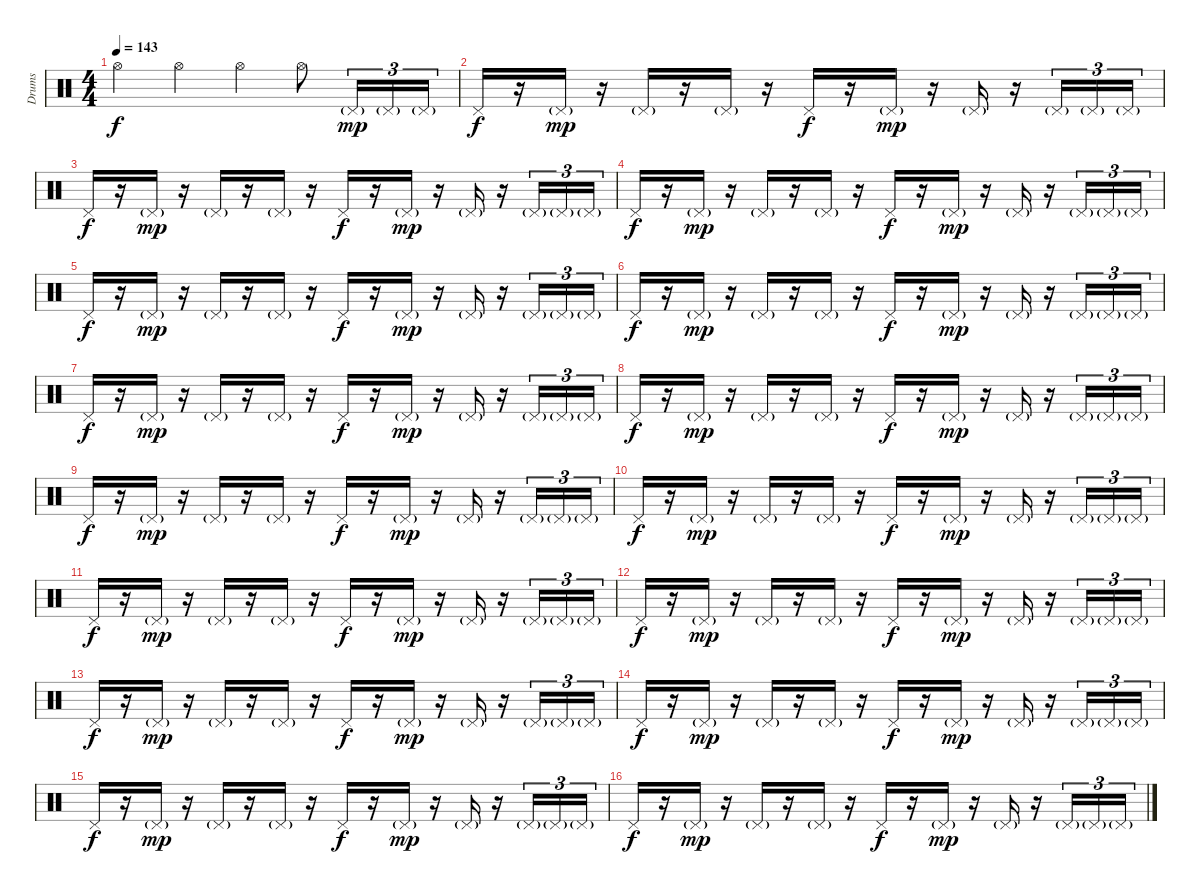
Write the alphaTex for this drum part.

\track ("Drums" "Drums") {instrument percussion}
\staff {score}
\articulation defaults
\ts (4 4)
\tempo 143
\clef neutral
\ks c "Hi-Hat (open)".4{dy f} "Hi-Hat (open)".4 "Hi-Hat (open)".4 "Hi-Hat (open)".8 "Pedal Hi-Hat (hit)"{g}.16{tu (3 2) dy mp} "Pedal Hi-Hat (hit)"{g}.16{tu (3 2)} "Pedal Hi-Hat (hit)"{g}.16{tu (3 2)}
|
"Pedal Hi-Hat (hit)".16{dy f} r.16 "Pedal Hi-Hat (hit)"{g}.16{dy mp} r.16 "Pedal Hi-Hat (hit)"{g}.16 r.16 "Pedal Hi-Hat (hit)"{g}.16 r.16 "Pedal Hi-Hat (hit)".16{dy f} r.16 "Pedal Hi-Hat (hit)"{g}.16{dy mp} r.16 "Pedal Hi-Hat (hit)"{g}.16 r.16 "Pedal Hi-Hat (hit)"{g}.16{tu (3 2)} "Pedal Hi-Hat (hit)"{g}.16{tu (3 2)} "Pedal Hi-Hat (hit)"{g}.16{tu (3 2)} |
"Pedal Hi-Hat (hit)".16{dy f} r.16 "Pedal Hi-Hat (hit)"{g}.16{dy mp} r.16 "Pedal Hi-Hat (hit)"{g}.16 r.16 "Pedal Hi-Hat (hit)"{g}.16 r.16 "Pedal Hi-Hat (hit)".16{dy f} r.16 "Pedal Hi-Hat (hit)"{g}.16{dy mp} r.16 "Pedal Hi-Hat (hit)"{g}.16 r.16 "Pedal Hi-Hat (hit)"{g}.16{tu (3 2)} "Pedal Hi-Hat (hit)"{g}.16{tu (3 2)} "Pedal Hi-Hat (hit)"{g}.16{tu (3 2)} |
"Pedal Hi-Hat (hit)".16{dy f} r.16 "Pedal Hi-Hat (hit)"{g}.16{dy mp} r.16 "Pedal Hi-Hat (hit)"{g}.16 r.16 "Pedal Hi-Hat (hit)"{g}.16 r.16 "Pedal Hi-Hat (hit)".16{dy f} r.16 "Pedal Hi-Hat (hit)"{g}.16{dy mp} r.16 "Pedal Hi-Hat (hit)"{g}.16 r.16 "Pedal Hi-Hat (hit)"{g}.16{tu (3 2)} "Pedal Hi-Hat (hit)"{g}.16{tu (3 2)} "Pedal Hi-Hat (hit)"{g}.16{tu (3 2)} |
"Pedal Hi-Hat (hit)".16{dy f} r.16 "Pedal Hi-Hat (hit)"{g}.16{dy mp} r.16 "Pedal Hi-Hat (hit)"{g}.16 r.16 "Pedal Hi-Hat (hit)"{g}.16 r.16 "Pedal Hi-Hat (hit)".16{dy f} r.16 "Pedal Hi-Hat (hit)"{g}.16{dy mp} r.16 "Pedal Hi-Hat (hit)"{g}.16 r.16 "Pedal Hi-Hat (hit)"{g}.16{tu (3 2)} "Pedal Hi-Hat (hit)"{g}.16{tu (3 2)} "Pedal Hi-Hat (hit)"{g}.16{tu (3 2)} |
"Pedal Hi-Hat (hit)".16{dy f} r.16 "Pedal Hi-Hat (hit)"{g}.16{dy mp} r.16 "Pedal Hi-Hat (hit)"{g}.16 r.16 "Pedal Hi-Hat (hit)"{g}.16 r.16 "Pedal Hi-Hat (hit)".16{dy f} r.16 "Pedal Hi-Hat (hit)"{g}.16{dy mp} r.16 "Pedal Hi-Hat (hit)"{g}.16 r.16 "Pedal Hi-Hat (hit)"{g}.16{tu (3 2)} "Pedal Hi-Hat (hit)"{g}.16{tu (3 2)} "Pedal Hi-Hat (hit)"{g}.16{tu (3 2)} |
"Pedal Hi-Hat (hit)".16{dy f} r.16 "Pedal Hi-Hat (hit)"{g}.16{dy mp} r.16 "Pedal Hi-Hat (hit)"{g}.16 r.16 "Pedal Hi-Hat (hit)"{g}.16 r.16 "Pedal Hi-Hat (hit)".16{dy f} r.16 "Pedal Hi-Hat (hit)"{g}.16{dy mp} r.16 "Pedal Hi-Hat (hit)"{g}.16 r.16 "Pedal Hi-Hat (hit)"{g}.16{tu (3 2)} "Pedal Hi-Hat (hit)"{g}.16{tu (3 2)} "Pedal Hi-Hat (hit)"{g}.16{tu (3 2)} |
"Pedal Hi-Hat (hit)".16{dy f} r.16 "Pedal Hi-Hat (hit)"{g}.16{dy mp} r.16 "Pedal Hi-Hat (hit)"{g}.16 r.16 "Pedal Hi-Hat (hit)"{g}.16 r.16 "Pedal Hi-Hat (hit)".16{dy f} r.16 "Pedal Hi-Hat (hit)"{g}.16{dy mp} r.16 "Pedal Hi-Hat (hit)"{g}.16 r.16 "Pedal Hi-Hat (hit)"{g}.16{tu (3 2)} "Pedal Hi-Hat (hit)"{g}.16{tu (3 2)} "Pedal Hi-Hat (hit)"{g}.16{tu (3 2)} |
"Pedal Hi-Hat (hit)".16{dy f} r.16 "Pedal Hi-Hat (hit)"{g}.16{dy mp} r.16 "Pedal Hi-Hat (hit)"{g}.16 r.16 "Pedal Hi-Hat (hit)"{g}.16 r.16 "Pedal Hi-Hat (hit)".16{dy f} r.16 "Pedal Hi-Hat (hit)"{g}.16{dy mp} r.16 "Pedal Hi-Hat (hit)"{g}.16 r.16 "Pedal Hi-Hat (hit)"{g}.16{tu (3 2)} "Pedal Hi-Hat (hit)"{g}.16{tu (3 2)} "Pedal Hi-Hat (hit)"{g}.16{tu (3 2)} |
"Pedal Hi-Hat (hit)".16{dy f} r.16 "Pedal Hi-Hat (hit)"{g}.16{dy mp} r.16 "Pedal Hi-Hat (hit)"{g}.16 r.16 "Pedal Hi-Hat (hit)"{g}.16 r.16 "Pedal Hi-Hat (hit)".16{dy f} r.16 "Pedal Hi-Hat (hit)"{g}.16{dy mp} r.16 "Pedal Hi-Hat (hit)"{g}.16 r.16 "Pedal Hi-Hat (hit)"{g}.16{tu (3 2)} "Pedal Hi-Hat (hit)"{g}.16{tu (3 2)} "Pedal Hi-Hat (hit)"{g}.16{tu (3 2)} |
"Pedal Hi-Hat (hit)".16{dy f} r.16 "Pedal Hi-Hat (hit)"{g}.16{dy mp} r.16 "Pedal Hi-Hat (hit)"{g}.16 r.16 "Pedal Hi-Hat (hit)"{g}.16 r.16 "Pedal Hi-Hat (hit)".16{dy f} r.16 "Pedal Hi-Hat (hit)"{g}.16{dy mp} r.16 "Pedal Hi-Hat (hit)"{g}.16 r.16 "Pedal Hi-Hat (hit)"{g}.16{tu (3 2)} "Pedal Hi-Hat (hit)"{g}.16{tu (3 2)} "Pedal Hi-Hat (hit)"{g}.16{tu (3 2)} |
"Pedal Hi-Hat (hit)".16{dy f} r.16 "Pedal Hi-Hat (hit)"{g}.16{dy mp} r.16 "Pedal Hi-Hat (hit)"{g}.16 r.16 "Pedal Hi-Hat (hit)"{g}.16 r.16 "Pedal Hi-Hat (hit)".16{dy f} r.16 "Pedal Hi-Hat (hit)"{g}.16{dy mp} r.16 "Pedal Hi-Hat (hit)"{g}.16 r.16 "Pedal Hi-Hat (hit)"{g}.16{tu (3 2)} "Pedal Hi-Hat (hit)"{g}.16{tu (3 2)} "Pedal Hi-Hat (hit)"{g}.16{tu (3 2)} |
"Pedal Hi-Hat (hit)".16{dy f} r.16 "Pedal Hi-Hat (hit)"{g}.16{dy mp} r.16 "Pedal Hi-Hat (hit)"{g}.16 r.16 "Pedal Hi-Hat (hit)"{g}.16 r.16 "Pedal Hi-Hat (hit)".16{dy f} r.16 "Pedal Hi-Hat (hit)"{g}.16{dy mp} r.16 "Pedal Hi-Hat (hit)"{g}.16 r.16 "Pedal Hi-Hat (hit)"{g}.16{tu (3 2)} "Pedal Hi-Hat (hit)"{g}.16{tu (3 2)} "Pedal Hi-Hat (hit)"{g}.16{tu (3 2)} |
"Pedal Hi-Hat (hit)".16{dy f} r.16 "Pedal Hi-Hat (hit)"{g}.16{dy mp} r.16 "Pedal Hi-Hat (hit)"{g}.16 r.16 "Pedal Hi-Hat (hit)"{g}.16 r.16 "Pedal Hi-Hat (hit)".16{dy f} r.16 "Pedal Hi-Hat (hit)"{g}.16{dy mp} r.16 "Pedal Hi-Hat (hit)"{g}.16 r.16 "Pedal Hi-Hat (hit)"{g}.16{tu (3 2)} "Pedal Hi-Hat (hit)"{g}.16{tu (3 2)} "Pedal Hi-Hat (hit)"{g}.16{tu (3 2)} |
"Pedal Hi-Hat (hit)".16{dy f} r.16 "Pedal Hi-Hat (hit)"{g}.16{dy mp} r.16 "Pedal Hi-Hat (hit)"{g}.16 r.16 "Pedal Hi-Hat (hit)"{g}.16 r.16 "Pedal Hi-Hat (hit)".16{dy f} r.16 "Pedal Hi-Hat (hit)"{g}.16{dy mp} r.16 "Pedal Hi-Hat (hit)"{g}.16 r.16 "Pedal Hi-Hat (hit)"{g}.16{tu (3 2)} "Pedal Hi-Hat (hit)"{g}.16{tu (3 2)} "Pedal Hi-Hat (hit)"{g}.16{tu (3 2)} |
"Pedal Hi-Hat (hit)".16{dy f} r.16 "Pedal Hi-Hat (hit)"{g}.16{dy mp} r.16 "Pedal Hi-Hat (hit)"{g}.16 r.16 "Pedal Hi-Hat (hit)"{g}.16 r.16 "Pedal Hi-Hat (hit)".16{dy f} r.16 "Pedal Hi-Hat (hit)"{g}.16{dy mp} r.16 "Pedal Hi-Hat (hit)"{g}.16 r.16 "Pedal Hi-Hat (hit)"{g}.16{tu (3 2)} "Pedal Hi-Hat (hit)"{g}.16{tu (3 2)} "Pedal Hi-Hat (hit)"{g}.16{tu (3 2)}
